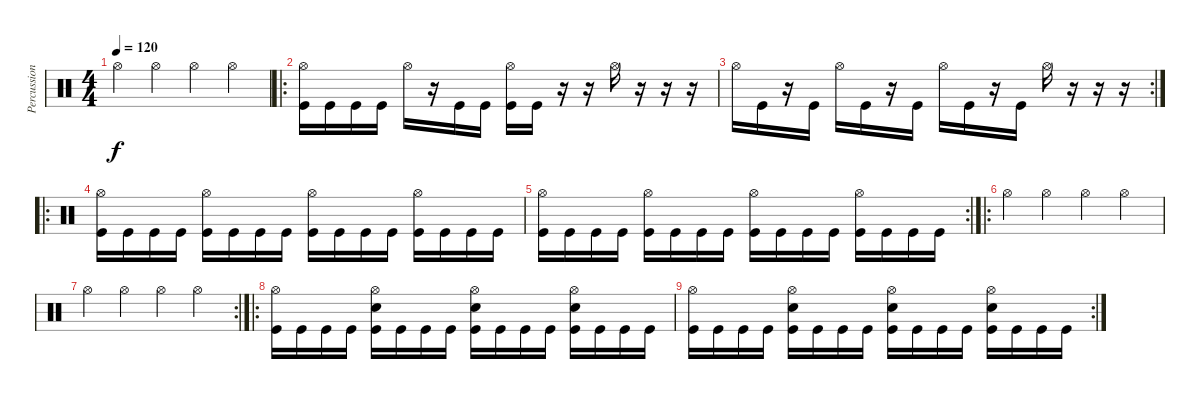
\track ("Percussion" "Percussion") {instrument percussion}
\staff {score}
\articulation defaults
\ts (4 4)
\tempo 120
\clef neutral
\ks c "Hi-Hat (open)".4{dy f} "Hi-Hat (open)".4 "Hi-Hat (open)".4 "Hi-Hat (open)".4
|
\ro
("Hi-Hat (open)" "Kick (hit)").16 "Kick (hit)".16 "Kick (hit)".16 "Kick (hit)".16 "Hi-Hat (open)".16 r.16 "Kick (hit)".16 "Kick (hit)".16 ("Hi-Hat (open)" "Kick (hit)").16 "Kick (hit)".16 r.16 r.16 "Hi-Hat (open)".16 r.16 r.16 r.16 |
\rc 2 "Hi-Hat (open)".16 "Kick (hit)".16
r.16 "Kick (hit)".16 "Hi-Hat (open)".16 "Kick (hit)".16 r.16 "Kick (hit)".16 "Hi-Hat (open)".16 "Kick (hit)".16 r.16 "Kick (hit)".16 "Hi-Hat (open)".16 r.16 r.16 r.16 |
\ro
("Hi-Hat (open)" "Kick (hit)").16 "Kick (hit)".16 "Kick (hit)".16 "Kick (hit)".16 ("Hi-Hat (open)" "Kick (hit)").16 "Kick (hit)".16 "Kick (hit)".16 "Kick (hit)".16 ("Hi-Hat (open)" "Kick (hit)").16 "Kick (hit)".16 "Kick (hit)".16 "Kick (hit)".16 ("Hi-Hat (open)" "Kick (hit)").16 "Kick (hit)".16 "Kick (hit)".16 "Kick (hit)".16 |
\rc 2
("Hi-Hat (open)" "Kick (hit)").16 "Kick (hit)".16 "Kick (hit)".16 "Kick (hit)".16 ("Hi-Hat (open)" "Kick (hit)").16 "Kick (hit)".16 "Kick (hit)".16 "Kick (hit)".16 ("Hi-Hat (open)" "Kick (hit)").16 "Kick (hit)".16 "Kick (hit)".16 "Kick (hit)".16 ("Hi-Hat (open)" "Kick (hit)").16 "Kick (hit)".16 "Kick (hit)".16 "Kick (hit)".16 |
\ro "Hi-Hat (open)".4 "Hi-Hat (open)".4 "Hi-Hat (open)".4 "Hi-Hat (open)".4
|
\rc 2 "Hi-Hat (open)".4 "Hi-Hat (open)".4 "Hi-Hat (open)".4 "Hi-Hat (open)".4
|
\ro
("Hi-Hat (open)" "Kick (hit)").16 "Kick (hit)".16 "Kick (hit)".16 "Kick (hit)".16 ("Hi-Hat (open)" "Snare (hit) 2" "Kick (hit)").16 "Kick (hit)".16 "Kick (hit)".16 "Kick (hit)".16 ("Hi-Hat (open)" "Snare (hit) 2" "Kick (hit)").16 "Kick (hit)".16 "Kick (hit)".16 "Kick (hit)".16 ("Hi-Hat (open)" "Snare (hit) 2" "Kick (hit)").16 "Kick (hit)".16 "Kick (hit)".16 "Kick (hit)".16 |
\rc 2
("Hi-Hat (open)" "Kick (hit)").16 "Kick (hit)".16 "Kick (hit)".16 "Kick (hit)".16 ("Hi-Hat (open)" "Snare (hit) 2" "Kick (hit)").16 "Kick (hit)".16 "Kick (hit)".16 "Kick (hit)".16 ("Hi-Hat (open)" "Snare (hit) 2" "Kick (hit)").16 "Kick (hit)".16 "Kick (hit)".16 "Kick (hit)".16 ("Hi-Hat (open)" "Snare (hit) 2" "Kick (hit)").16 "Kick (hit)".16 "Kick (hit)".16 "Kick (hit)".16
